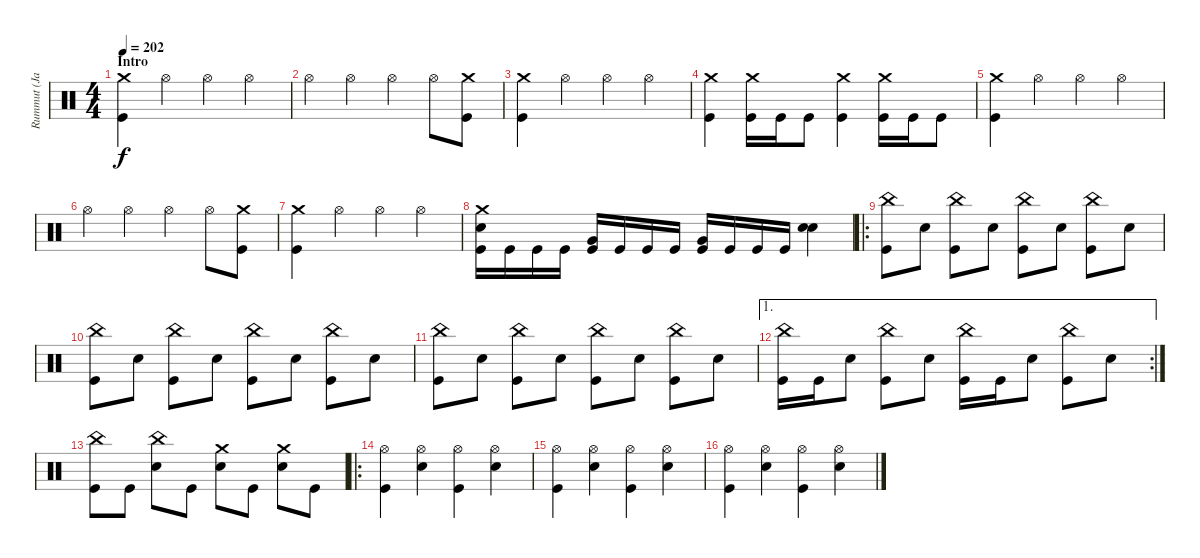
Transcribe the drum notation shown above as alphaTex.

\track ("Rummut (Janne)" "Rummut (Ja") {instrument percussion}
\staff {score}
\articulation defaults
\ts (4 4)
\section ("" "Intro")
\tempo 202
\clef neutral
\ks c
("Crash medium (hit)" "Kick (hit)").4{dy f} "Hi-Hat (open)".4 "Hi-Hat (open)".4 "Hi-Hat (open)".4 |
"Hi-Hat (open)".4 "Hi-Hat (open)".4 "Hi-Hat (open)".4 "Hi-Hat (open)".8 ("Crash medium (hit)" "Kick (hit)").8 |
("Crash medium (hit)" "Kick (hit)").4 "Hi-Hat (open)".4 "Hi-Hat (open)".4 "Hi-Hat (open)".4 |
("Crash medium (hit)" "Kick (hit)").4 ("Crash medium (hit)" "Kick (hit)").16 "Kick (hit)".16 "Kick (hit)".8 ("Crash medium (hit)" "Kick (hit)").4 ("Crash medium (hit)" "Kick (hit)").16 "Kick (hit)".16 "Kick (hit)".8 |
("Crash medium (hit)" "Kick (hit)").4 "Hi-Hat (open)".4 "Hi-Hat (open)".4 "Hi-Hat (open)".4 |
"Hi-Hat (open)".4 "Hi-Hat (open)".4 "Hi-Hat (open)".4 "Hi-Hat (open)".8 ("Crash medium (hit)" "Kick (hit)").8 |
("Crash medium (hit)" "Kick (hit)").4 "Hi-Hat (open)".4 "Hi-Hat (open)".4 "Hi-Hat (open)".4 |
("Crash medium (hit)" "Snare (hit) 2" "Kick (hit)").16 "Kick (hit)".16 "Kick (hit)".16 "Kick (hit)".16 ("Very Low Tom (hit)" "Kick (hit)").16 "Kick (hit)".16 "Kick (hit)".16 "Kick (hit)".16 ("Very Low Tom (hit)" "Kick (hit)").16 "Kick (hit)".16 "Kick (hit)".16 "Kick (hit)".16 ("Snare (hit) 2" "Snare (hit) 2").4 |
\ro
("China (hit)" "Kick (hit)").8 "Snare (hit) 2".8 ("China (hit)" "Kick (hit)").8 "Snare (hit) 2".8 ("China (hit)" "Kick (hit)").8 "Snare (hit) 2".8 ("China (hit)" "Kick (hit)").8 "Snare (hit) 2".8 |
("China (hit)" "Kick (hit)").8 "Snare (hit) 2".8 ("China (hit)" "Kick (hit)").8 "Snare (hit) 2".8 ("China (hit)" "Kick (hit)").8 "Snare (hit) 2".8 ("China (hit)" "Kick (hit)").8 "Snare (hit) 2".8 |
("China (hit)" "Kick (hit)").8 "Snare (hit) 2".8 ("China (hit)" "Kick (hit)").8 "Snare (hit) 2".8 ("China (hit)" "Kick (hit)").8 "Snare (hit) 2".8 ("China (hit)" "Kick (hit)").8 "Snare (hit) 2".8 |
\ae 1
\rc 2
("China (hit)" "Kick (hit)").16 "Kick (hit)".16 "Snare (hit) 2".8 ("China (hit)" "Kick (hit)").8 "Snare (hit) 2".8 ("China (hit)" "Kick (hit)").16 "Kick (hit)".16 "Snare (hit) 2".8 ("China (hit)" "Kick (hit)").8 "Snare (hit) 2".8 |
("China (hit)" "Kick (hit)").8 "Kick (hit)".8 ("China (hit)" "Snare (hit) 2").8 "Kick (hit)".8 ("Crash medium (hit)" "Snare (hit) 2").8 "Kick (hit)".8 ("Crash medium (hit)" "Snare (hit) 2").8 "Kick (hit)".8 |
\ro
("Hi-Hat (open)" "Kick (hit)").4 ("Hi-Hat (open)" "Snare (hit) 2").4 ("Hi-Hat (open)" "Kick (hit)").4 ("Hi-Hat (open)" "Snare (hit) 2").4 |
("Hi-Hat (open)" "Kick (hit)").4 ("Hi-Hat (open)" "Snare (hit) 2").4 ("Hi-Hat (open)" "Kick (hit)").4 ("Hi-Hat (open)" "Snare (hit) 2").4 |
("Hi-Hat (open)" "Kick (hit)").4 ("Hi-Hat (open)" "Snare (hit) 2").4 ("Hi-Hat (open)" "Kick (hit)").4 ("Hi-Hat (open)" "Snare (hit) 2").4
